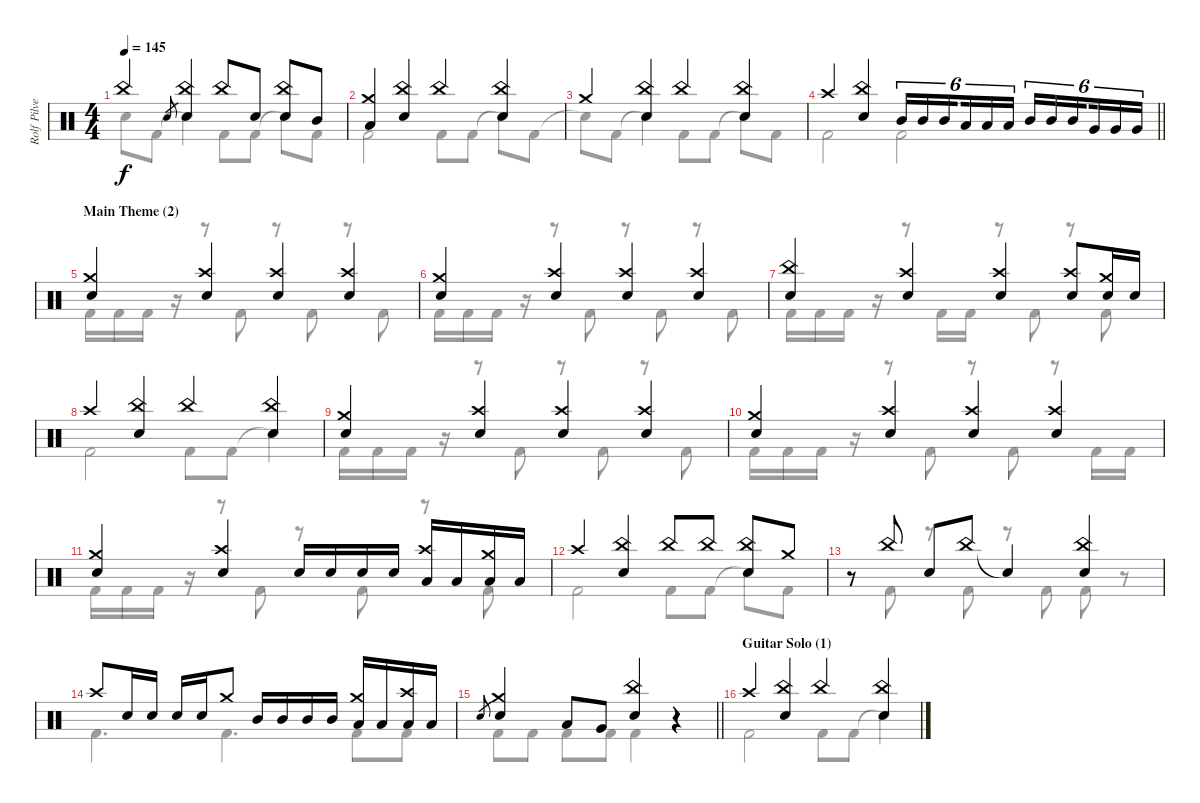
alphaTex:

\track ("Rolf Pilve - drums" "Rolf Pilve") {instrument percussion}
\staff {score}
\articulation defaults
\voice
\ts (4 4)
\tempo 145
\clef neutral
\ks aminor "China (hit)".4{dy f} "Electric Snare (hit)".8{gr}
("Electric Snare (hit)" "China (hit)").4 "China (hit)".8 "Electric Snare (hit)".8 ("Electric Snare (hit)" "China (hit)").8 "Mid Tom (hit)".8 |
("Low Tom (hit)" "Crash medium (hit)").4 ("Electric Snare (hit)" "China (hit)").4 "China (hit)".4 ("Electric Snare (hit)" "China (hit)").4 |
"Crash medium (hit)".4 ("China (hit)" "Electric Snare (hit)").4 "China (hit)".4 ("China (hit)" "Electric Snare (hit)").4 |
\barLineRight lightlight "Crash high (hit)".4
("China (hit)" "Electric Snare (hit)").4 "Mid Tom (hit)".16{tu (6 4)} "Mid Tom (hit)".16{tu (6 4)} "Mid Tom (hit)".16{tu (6 4) beam splitsecondary} "Low Tom (hit)".16{tu (6 4)} "Low Tom (hit)".16{tu (6 4)} "Low Tom (hit)".16{tu (6 4)} "Mid Tom (hit)".16{tu (6 4)} "Mid Tom (hit)".16{tu (6 4)} "Mid Tom (hit)".16{tu (6 4) beam splitsecondary} "Very Low Tom (hit)".16{tu (6 4)} "Very Low Tom (hit)".16{tu (6 4)} "Very Low Tom (hit)".16{tu (6 4)} |
\section ("" "Main Theme (2)")
("Crash medium (hit)" "Electric Snare (hit)").4 ("Crash high (hit)" "Electric Snare (hit)").4 ("Crash high (hit)" "Electric Snare (hit)").4 ("Crash high (hit)" "Electric Snare (hit)").4 |
("Crash medium (hit)" "Electric Snare (hit)").4 ("Crash high (hit)" "Electric Snare (hit)").4 ("Crash high (hit)" "Electric Snare (hit)").4 ("Crash high (hit)" "Electric Snare (hit)").4 |
("China (hit)" "Electric Snare (hit)").4 ("Crash high (hit)" "Electric Snare (hit)").4 ("Crash high (hit)" "Electric Snare (hit)").4 ("Crash high (hit)" "Electric Snare (hit)").8 ("Crash medium (hit)" "Electric Snare (hit)").16 "Electric Snare (hit)".16 |
"Crash high (hit)".4 ("China (hit)" "Electric Snare (hit)").4 "China (hit)".4 ("China (hit)" "Electric Snare (hit)").4 |
("Crash medium (hit)" "Electric Snare (hit)").4 ("Crash high (hit)" "Electric Snare (hit)").4 ("Crash high (hit)" "Electric Snare (hit)").4 ("Crash high (hit)" "Electric Snare (hit)").4 |
("Crash medium (hit)" "Electric Snare (hit)").4 ("Crash high (hit)" "Electric Snare (hit)").4 ("Crash high (hit)" "Electric Snare (hit)").4 ("Crash high (hit)" "Electric Snare (hit)").4 |
("Crash medium (hit)" "Electric Snare (hit)").4 ("Crash high (hit)" "Electric Snare (hit)").4 "Electric Snare (hit)".16 "Electric Snare (hit)".16 "Electric Snare (hit)".16 "Electric Snare (hit)".16 ("Crash high (hit)" "Low Tom (hit)").16 "Low Tom (hit)".16 ("Crash medium (hit)" "Low Tom (hit)").16 "Low Tom (hit)".16 |
"Crash high (hit)".4 ("China (hit)" "Electric Snare (hit)").4 "China (hit)".8 "China (hit)".8 ("China (hit)" "Electric Snare (hit)").8 "Crash medium (hit)".8 |
r.8 "China (hit)".8 "Electric Snare (hit)".8 "China (hit)".8 "Snare (hit)"{t}.4 ("China (hit)" "Electric Snare (hit)").4 |
"Crash high (hit)".8 "Electric Snare (hit)".16 "Electric Snare (hit)".16 "Electric Snare (hit)".16 "Electric Snare (hit)".16 "Crash medium (hit)".8 "Mid Tom (hit)".16 "Mid Tom (hit)".16 "Mid Tom (hit)".16 "Mid Tom (hit)".16 ("Crash medium (hit)" "Low Tom (hit)").16 "Low Tom (hit)".16 ("Crash high (hit)" "Low Tom (hit)").16 "Low Tom (hit)".16 |
\barLineRight lightlight "Electric Snare (hit)".8{gr}
("Crash medium (hit)" "Electric Snare (hit)").4 "Low Tom (hit)".8 "Very Low Tom (hit)".8 ("China (hit)" "Electric Snare (hit)").4 r.4 |
\section ("" "Guitar Solo (1)")
"Crash high (hit)".4 ("China (hit)" "Electric Snare (hit)").4 "China (hit)".4 ("China (hit)" "Electric Snare (hit)").4
\voice
\clef neutral
\ottava regular
\simile none
\ks aminor "Snare (hit)"{t}.8{dy f} "Kick (hit) 2".8 "Snare (hit)"{t}.4 "Kick (hit) 2".8 "Kick (hit) 2".8 "Snare (hit)"{t}.8 "Kick (hit) 2".8
|
"Kick (hit) 2".2 "Kick (hit) 2".8 "Kick (hit) 2".8 "Snare (hit)"{t}.8 "Kick (hit) 2".8 |
"Snare (hit)"{t}.8 "Kick (hit) 2".8 "Snare (hit)"{t}.4 "Kick (hit) 2".8 "Kick (hit) 2".8 "Snare (hit)"{t}.8 "Kick (hit) 2".8 |
\barLineRight lightlight "Kick (hit) 2".2 "Kick (hit) 2".2
|
"Kick (hit) 2".16 "Kick (hit) 2".16 "Kick (hit) 2".16 r.16 r.8 "Kick (hit) 2".8 r.8 "Kick (hit) 2".8 r.8 "Kick (hit) 2".8 |
"Kick (hit) 2".16 "Kick (hit) 2".16 "Kick (hit) 2".16 r.16 r.8 "Kick (hit) 2".8 r.8 "Kick (hit) 2".8 r.8 "Kick (hit) 2".8 |
"Kick (hit) 2".16 "Kick (hit) 2".16 "Kick (hit) 2".16 r.16 r.8 "Kick (hit) 2".16 "Kick (hit) 2".16 r.8 "Kick (hit) 2".8 r.8 "Kick (hit) 2".8 |
"Kick (hit) 2".2 "Kick (hit) 2".8 "Kick (hit) 2".8 "Snare (hit)"{t}.4 |
"Kick (hit) 2".16 "Kick (hit) 2".16 "Kick (hit) 2".16 r.16 r.8 "Kick (hit) 2".8 r.8 "Kick (hit) 2".8 r.8 "Kick (hit) 2".8 |
"Kick (hit) 2".16 "Kick (hit) 2".16 "Kick (hit) 2".16 r.16 r.8 "Kick (hit) 2".8 r.8 "Kick (hit) 2".8 r.8 "Kick (hit) 2".16 "Kick (hit) 2".16 |
"Kick (hit) 2".16 "Kick (hit) 2".16 "Kick (hit) 2".16 r.16 r.8 "Kick (hit) 2".8 r.8 "Kick (hit) 2".8 r.8 "Kick (hit) 2".8 |
"Kick (hit) 2".2 "Kick (hit) 2".8 "Kick (hit) 2".8 "Snare (hit)"{t}.8 "Kick (hit) 2".8 |
r.8 "Kick (hit) 2".8 r.8 "Kick (hit) 2".8 r.8 "Kick (hit) 2".8 "Kick (hit) 2".8 r.8 |
"Kick (hit) 2".4{d} "Kick (hit) 2".4{d} "Kick (hit) 2".8 "Kick (hit) 2".8 |
\barLineRight lightlight "Kick (hit) 2".8 "Kick (hit) 2".8 "Kick (hit) 2".8 "Kick (hit) 2".8 "Kick (hit) 2".4
r.4 |
"Kick (hit) 2".2 "Kick (hit) 2".8 "Kick (hit) 2".8 "Snare (hit)"{t}.4
